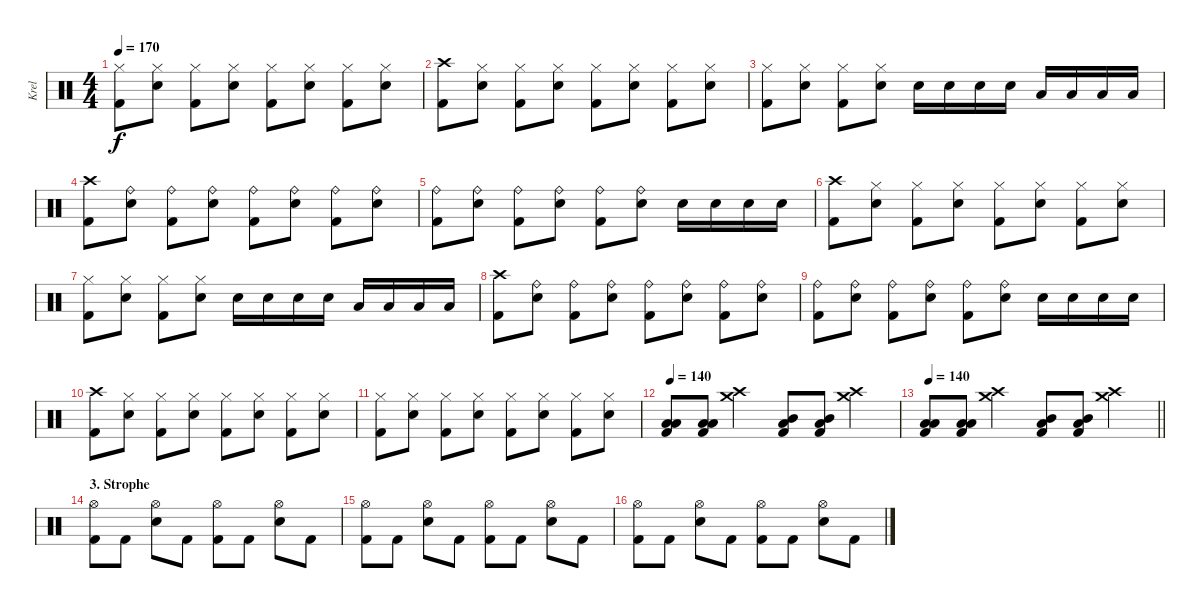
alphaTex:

\track ("Krel" "Krel") {instrument percussion}
\staff {score}
\articulation defaults
\ts (4 4)
\tempo 170
\clef neutral
\ks c
("Hi-Hat (closed)" "Kick (hit) 2").8{dy f} ("Hi-Hat (closed)" "Snare (hit) 2").8 ("Hi-Hat (closed)" "Kick (hit) 2").8 ("Hi-Hat (closed)" "Snare (hit) 2").8 ("Hi-Hat (closed)" "Kick (hit) 2").8 ("Hi-Hat (closed)" "Snare (hit) 2").8 ("Hi-Hat (closed)" "Kick (hit) 2").8 ("Hi-Hat (closed)" "Snare (hit) 2").8 |
("Crash high (hit)" "Kick (hit) 2").8 ("Hi-Hat (closed)" "Snare (hit) 2").8 ("Hi-Hat (closed)" "Kick (hit) 2").8 ("Hi-Hat (closed)" "Snare (hit) 2").8 ("Hi-Hat (closed)" "Kick (hit) 2").8 ("Hi-Hat (closed)" "Snare (hit) 2").8 ("Hi-Hat (closed)" "Kick (hit) 2").8 ("Hi-Hat (closed)" "Snare (hit) 2").8 |
("Hi-Hat (closed)" "Kick (hit) 2").8 ("Hi-Hat (closed)" "Snare (hit) 2").8 ("Hi-Hat (closed)" "Kick (hit) 2").8 ("Hi-Hat (closed)" "Snare (hit) 2").8 "Snare (hit) 2".16 "Snare (hit) 2".16 "Snare (hit) 2".16 "Snare (hit) 2".16 "Low Tom (hit)".16 "Low Tom (hit)".16 "Low Tom (hit)".16 "Low Tom (hit)".16 |
("Crash high (hit)" "Kick (hit) 2").8 ("Ride (bell)" "Snare (hit) 2").8 ("Ride (bell)" "Kick (hit) 2").8 ("Ride (bell)" "Snare (hit) 2").8 ("Ride (bell)" "Kick (hit) 2").8 ("Ride (bell)" "Snare (hit) 2").8 ("Ride (bell)" "Kick (hit) 2").8 ("Ride (bell)" "Snare (hit) 2").8 |
("Ride (bell)" "Kick (hit) 2").8 ("Ride (bell)" "Snare (hit) 2").8 ("Ride (bell)" "Kick (hit) 2").8 ("Ride (bell)" "Snare (hit) 2").8 ("Ride (bell)" "Kick (hit) 2").8 ("Ride (bell)" "Snare (hit) 2").8 "Snare (hit) 2".16 "Snare (hit) 2".16 "Snare (hit) 2".16 "Snare (hit) 2".16 |
("Crash high (hit)" "Kick (hit) 2").8 ("Hi-Hat (closed)" "Snare (hit) 2").8 ("Hi-Hat (closed)" "Kick (hit) 2").8 ("Hi-Hat (closed)" "Snare (hit) 2").8 ("Hi-Hat (closed)" "Kick (hit) 2").8 ("Hi-Hat (closed)" "Snare (hit) 2").8 ("Hi-Hat (closed)" "Kick (hit) 2").8 ("Hi-Hat (closed)" "Snare (hit) 2").8 |
("Hi-Hat (closed)" "Kick (hit) 2").8 ("Hi-Hat (closed)" "Snare (hit) 2").8 ("Hi-Hat (closed)" "Kick (hit) 2").8 ("Hi-Hat (closed)" "Snare (hit) 2").8 "Snare (hit) 2".16 "Snare (hit) 2".16 "Snare (hit) 2".16 "Snare (hit) 2".16 "Low Tom (hit)".16 "Low Tom (hit)".16 "Low Tom (hit)".16 "Low Tom (hit)".16 |
("Crash high (hit)" "Kick (hit) 2").8 ("Ride (bell)" "Snare (hit) 2").8 ("Ride (bell)" "Kick (hit) 2").8 ("Ride (bell)" "Snare (hit) 2").8 ("Ride (bell)" "Kick (hit) 2").8 ("Ride (bell)" "Snare (hit) 2").8 ("Ride (bell)" "Kick (hit) 2").8 ("Ride (bell)" "Snare (hit) 2").8 |
("Ride (bell)" "Kick (hit) 2").8 ("Ride (bell)" "Snare (hit) 2").8 ("Ride (bell)" "Kick (hit) 2").8 ("Ride (bell)" "Snare (hit) 2").8 ("Ride (bell)" "Kick (hit) 2").8 ("Ride (bell)" "Snare (hit) 2").8 "Snare (hit) 2".16 "Snare (hit) 2".16 "Snare (hit) 2".16 "Snare (hit) 2".16 |
("Crash high (hit)" "Kick (hit) 2").8 ("Hi-Hat (closed)" "Snare (hit) 2").8 ("Hi-Hat (closed)" "Kick (hit) 2").8 ("Hi-Hat (closed)" "Snare (hit) 2").8 ("Hi-Hat (closed)" "Kick (hit) 2").8 ("Hi-Hat (closed)" "Snare (hit) 2").8 ("Hi-Hat (closed)" "Kick (hit) 2").8 ("Hi-Hat (closed)" "Snare (hit) 2").8 |
("Hi-Hat (closed)" "Kick (hit) 2").8 ("Hi-Hat (closed)" "Snare (hit) 2").8 ("Hi-Hat (closed)" "Kick (hit) 2").8 ("Hi-Hat (closed)" "Snare (hit) 2").8 ("Hi-Hat (closed)" "Kick (hit) 2").8 ("Hi-Hat (closed)" "Snare (hit) 2").8 ("Hi-Hat (closed)" "Kick (hit) 2").8 ("Hi-Hat (closed)" "Snare (hit) 2").8 |
\tempo 140
("Low Tom (hit)" "Low Floor Tom (hit)" "Kick (hit) 2").8 ("Low Tom (hit)" "Low Floor Tom (hit)" "Kick (hit) 2").8 ("Crash high (hit)" "Crash medium (hit)").4 ("Mid Tom (hit)" "Low Tom (hit)" "Kick (hit) 2").8 ("Mid Tom (hit)" "Low Tom (hit)" "Kick (hit) 2").8 ("Crash high (hit)" "Crash medium (hit)").4 |
\tempo 140
\barLineRight lightlight
("Low Tom (hit)" "Low Floor Tom (hit)" "Kick (hit) 2").8 ("Low Tom (hit)" "Low Floor Tom (hit)" "Kick (hit) 2").8 ("Crash high (hit)" "Crash medium (hit)").4 ("Mid Tom (hit)" "Low Tom (hit)" "Kick (hit) 2").8 ("Mid Tom (hit)" "Low Tom (hit)" "Kick (hit) 2").8 ("Crash high (hit)" "Crash medium (hit)").4 |
\section ("" "3. Strophe")
("Hi-Hat (open)" "Kick (hit) 2").8 "Kick (hit) 2".8 ("Hi-Hat (open)" "Snare (hit) 2").8 "Kick (hit) 2".8 ("Hi-Hat (open)" "Kick (hit) 2").8 "Kick (hit) 2".8 ("Hi-Hat (open)" "Snare (hit) 2").8 "Kick (hit) 2".8 |
("Hi-Hat (open)" "Kick (hit) 2").8 "Kick (hit) 2".8 ("Hi-Hat (open)" "Snare (hit) 2").8 "Kick (hit) 2".8 ("Hi-Hat (open)" "Kick (hit) 2").8 "Kick (hit) 2".8 ("Hi-Hat (open)" "Snare (hit) 2").8 "Kick (hit) 2".8 |
("Hi-Hat (open)" "Kick (hit) 2").8 "Kick (hit) 2".8 ("Hi-Hat (open)" "Snare (hit) 2").8 "Kick (hit) 2".8 ("Hi-Hat (open)" "Kick (hit) 2").8 "Kick (hit) 2".8 ("Hi-Hat (open)" "Snare (hit) 2").8 "Kick (hit) 2".8
